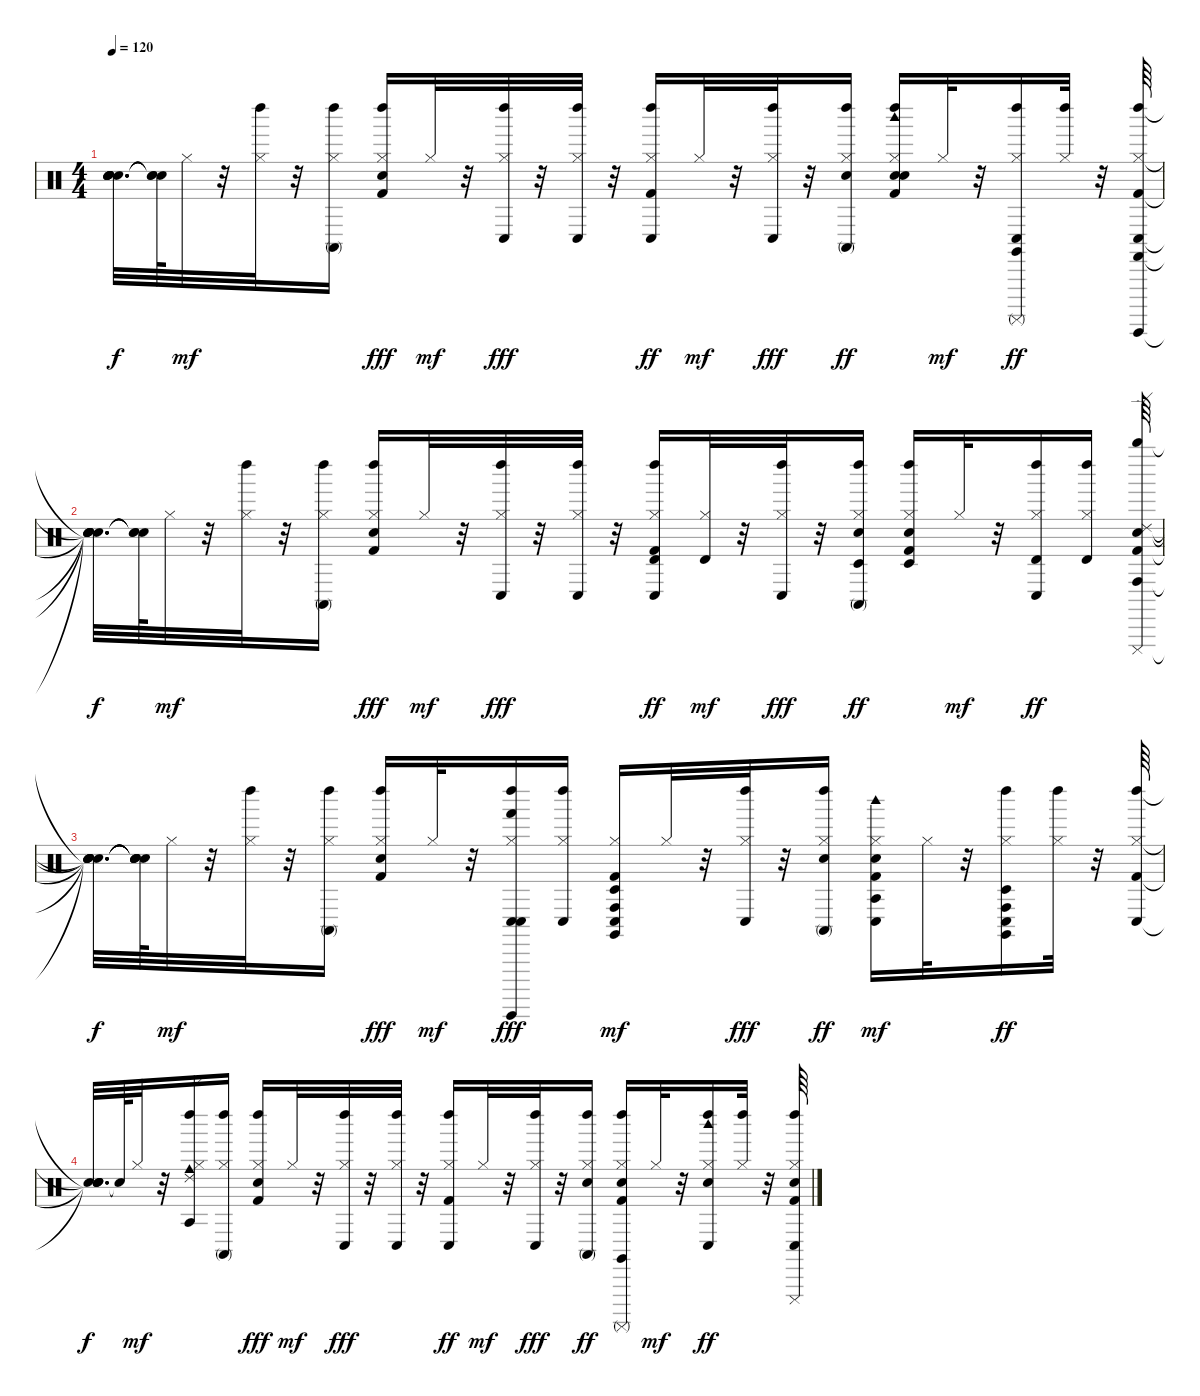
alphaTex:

\track "" {instrument percussion}
\staff {score}
\articulation defaults
\ts (4 4)
\tempo 120
\clef neutral
\ks c
("Snare (hit)"{t} "Snare (hit)"{t} "Snare (hit)"{t} "Snare (hit)"{t} "Snare (hit)"{t} "Snare (hit)"{t}).32{d dy f} ("Snare (hit)"{t} "Snare (hit)"{t} "Snare (hit)"{t}).64 "Hi-Hat (closed)".32{dy mf} r.32 ("Hi-Hat (closed)" "Left Maraca (hit)").32 r.32 ("Conga high (mute)" "Hi-Hat (closed)" "Left Maraca (hit)").16 ("Kick (hit) 2" "Electric Snare (hit)" "Hi-Hat (closed)" "Left Maraca (hit)").16{dy fff} "Hi-Hat (closed)".32{dy mf} r.32 ("Conga low (hit)" "Hi-Hat (closed)" "Left Maraca (hit)").32{dy fff} r.32 ("Conga low (hit)" "Hi-Hat (closed)" "Left Maraca (hit)").32 r.32 ("Kick (hit) 2" "Conga low (hit)" "Hi-Hat (closed)" "Left Maraca (hit)").16{dy ff} "Hi-Hat (closed)".32{dy mf} r.32 ("Conga low (hit)" "Hi-Hat (closed)" "Left Maraca (hit)").32{dy fff} r.32 ("Electric Snare (hit)" "Conga high (mute)" "Hi-Hat (closed)" "Left Maraca (hit)").16{dy ff} ("Woodblock high (hit)" "Snare (hit)" "Kick (hit) 2" "Electric Snare (hit)" "Hi-Hat (closed)" "Left Maraca (hit)").16 "Hi-Hat (closed)".32{dy mf} r.32 ("Claves (hit)" "Surdo (mute)" "Conga low (hit)" "Hi-Hat (closed)" "Left Maraca (hit)").16{dy ff} ("Hi-Hat (closed)" "Left Maraca (hit)").32 r.32 ("Guiro (hit)" "Castanets (hit)" "Kick (hit) 2" "Conga low (hit)" "Hi-Hat (closed)" "Left Maraca (hit)").64 |
("Snare (hit)"{t} "Snare (hit)"{t} "Snare (hit)"{t} "Snare (hit)"{t} "Snare (hit)"{t} "Snare (hit)"{t}).32{d dy f} ("Snare (hit)"{t} "Snare (hit)"{t} "Snare (hit)"{t}).64 "Hi-Hat (closed)".32{dy mf} r.32 ("Hi-Hat (closed)" "Left Maraca (hit)").32 r.32 ("Conga high (mute)" "Hi-Hat (closed)" "Left Maraca (hit)").16 ("Kick (hit) 2" "Electric Snare (hit)" "Hi-Hat (closed)" "Left Maraca (hit)").16{dy fff} "Hi-Hat (closed)".32{dy mf} r.32 ("Conga low (hit)" "Hi-Hat (closed)" "Left Maraca (hit)").32{dy fff} r.32 ("Conga low (hit)" "Hi-Hat (closed)" "Left Maraca (hit)").32 r.32 ("Kick (hit) 2" "Timbale high (hit)" "Conga low (hit)" "Hi-Hat (closed)" "Left Maraca (hit)").16{dy ff} ("Timbale high (hit)" "Hi-Hat (closed)").32{dy mf} r.32 ("Conga low (hit)" "Hi-Hat (closed)" "Left Maraca (hit)").32{dy fff} r.32 ("Electric Snare (hit)" "Timbale low (hit)" "Conga high (mute)" "Hi-Hat (closed)" "Left Maraca (hit)").16{dy ff} ("Kick (hit) 2" "Electric Snare (hit)" "Timbale low (hit)" "Hi-Hat (closed)" "Left Maraca (hit)").16 "Hi-Hat (closed)".32{dy mf} r.32 ("Timbale high (hit)" "Conga low (hit)" "Hi-Hat (closed)" "Left Maraca (hit)").16{dy ff} ("Timbale high (hit)" "Hi-Hat (closed)" "Left Maraca (hit)").16 ("Ride (edge) 2" "Conga high (hit)" "Whistle high (hit)" "Cuica (mute)" "Snare (hit)" "Kick (hit) 2").64 |
("Snare (hit)"{t} "Snare (hit)"{t} "Snare (hit)"{t} "Snare (hit)"{t} "Snare (hit)"{t} "Snare (hit)"{t}).32{d dy f} ("Snare (hit)"{t} "Snare (hit)"{t} "Snare (hit)"{t} "Snare (hit)"{t} "Snare (hit)"{t}).64 "Hi-Hat (closed)".32{dy mf} r.32 ("Hi-Hat (closed)" "Left Maraca (hit)").32 r.32 ("Conga high (mute)" "Hi-Hat (closed)" "Left Maraca (hit)").16 ("Kick (hit) 2" "Electric Snare (hit)" "Hi-Hat (closed)" "Left Maraca (hit)").16{dy fff} "Hi-Hat (closed)".32{dy mf} r.32 ("Hand (hit)" "Conga low (hit)" "Guiro (hit)" "Conga low (hit)" "Hi-Hat (closed)" "Left Maraca (hit)").16{dy fff} ("Conga low (hit)" "Hi-Hat (closed)" "Left Maraca (hit)").16 ("Conga high (hit)" "Timbale low (hit)" "Claves (hit)" "Kick (hit) 2" "Conga low (hit)" "Hi-Hat (closed)").16{dy mf} "Hi-Hat (closed)".32 r.32 ("Conga low (hit)" "Hi-Hat (closed)" "Left Maraca (hit)").32{dy fff} r.32 ("Electric Snare (hit)" "Conga high (mute)" "Hi-Hat (closed)" "Left Maraca (hit)").16{dy ff} ("Conga low (hit)" "Agogo tow (hit)" "Woodblock high (hit)" "Kick (hit) 2" "Electric Snare (hit)" "Hi-Hat (closed)").16{dy mf} "Hi-Hat (closed)".32 r.32 ("Conga high (hit)" "Timbale low (hit)" "Claves (hit)" "Conga low (hit)" "Hi-Hat (closed)" "Left Maraca (hit)").16{dy ff} ("Hi-Hat (closed)" "Left Maraca (hit)").32 r.32 ("Kick (hit) 2" "Conga low (hit)" "Hi-Hat (closed)" "Left Maraca (hit)").64 |
("Snare (hit)"{t} "Snare (hit)"{t} "Snare (hit)"{t} "Snare (hit)"{t}).32{d dy f} "Snare (hit)"{t}.64 "Hi-Hat (closed)".32{dy mf} r.32 ("Cowbell medium (hit)" "Ride (edge) 2" "Agogo tow (hit)" "Hi-Hat (closed)" "Left Maraca (hit)").16 ("Conga high (mute)" "Hi-Hat (closed)" "Left Maraca (hit)").16 ("Kick (hit) 2" "Electric Snare (hit)" "Hi-Hat (closed)" "Left Maraca (hit)").16{dy fff} "Hi-Hat (closed)".32{dy mf} r.32 ("Conga low (hit)" "Hi-Hat (closed)" "Left Maraca (hit)").32{dy fff} r.32 ("Conga low (hit)" "Hi-Hat (closed)" "Left Maraca (hit)").32 r.32 ("Kick (hit) 2" "Conga low (hit)" "Hi-Hat (closed)" "Left Maraca (hit)").16{dy ff} "Hi-Hat (closed)".32{dy mf} r.32 ("Conga low (hit)" "Hi-Hat (closed)" "Left Maraca (hit)").32{dy fff} r.32 ("Electric Snare (hit)" "Conga high (mute)" "Hi-Hat (closed)" "Left Maraca (hit)").16{dy ff} ("Claves (hit)" "Surdo (mute)" "Kick (hit) 2" "Electric Snare (hit)" "Hi-Hat (closed)" "Left Maraca (hit)").16 "Hi-Hat (closed)".32{dy mf} r.32 ("Woodblock high (hit)" "Snare (hit)" "Conga low (hit)" "Hi-Hat (closed)" "Left Maraca (hit)").16{dy ff} ("Hi-Hat (closed)" "Left Maraca (hit)").32 r.32 ("Cuica (mute)" "Snare (hit)" "Kick (hit) 2" "Conga low (hit)" "Hi-Hat (closed)" "Left Maraca (hit)").64
